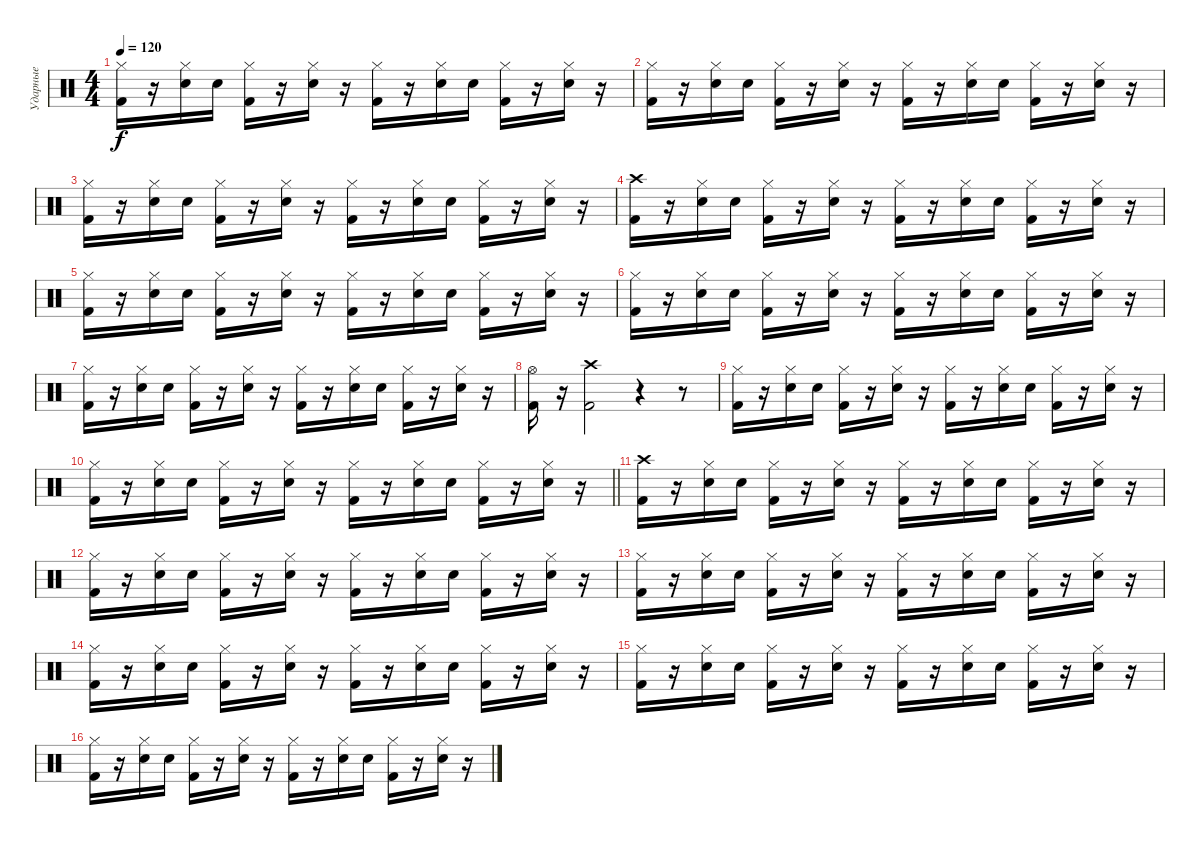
\track ("Ударные" "Ударные") {instrument percussion}
\staff {score}
\articulation defaults
\ts (4 4)
\tempo 120
\clef neutral
\ks c
("Hi-Hat (closed)" "Kick (hit) 2").16{dy f} r.16 ("Hi-Hat (closed)" "Electric Snare (hit)").16 "Electric Snare (hit)".16 ("Hi-Hat (closed)" "Kick (hit) 2").16 r.16 ("Hi-Hat (closed)" "Electric Snare (hit)").16 r.16 ("Hi-Hat (closed)" "Kick (hit) 2").16 r.16 ("Hi-Hat (closed)" "Electric Snare (hit)").16 "Electric Snare (hit)".16 ("Hi-Hat (closed)" "Kick (hit) 2").16 r.16 ("Hi-Hat (closed)" "Electric Snare (hit)").16 r.16 |
("Hi-Hat (closed)" "Kick (hit) 2").16 r.16 ("Hi-Hat (closed)" "Electric Snare (hit)").16 "Electric Snare (hit)".16 ("Hi-Hat (closed)" "Kick (hit) 2").16 r.16 ("Hi-Hat (closed)" "Electric Snare (hit)").16 r.16 ("Hi-Hat (closed)" "Kick (hit) 2").16 r.16 ("Hi-Hat (closed)" "Electric Snare (hit)").16 "Electric Snare (hit)".16 ("Hi-Hat (closed)" "Kick (hit) 2").16 r.16 ("Hi-Hat (closed)" "Electric Snare (hit)").16 r.16 |
("Hi-Hat (closed)" "Kick (hit) 2").16 r.16 ("Hi-Hat (closed)" "Electric Snare (hit)").16 "Electric Snare (hit)".16 ("Hi-Hat (closed)" "Kick (hit) 2").16 r.16 ("Hi-Hat (closed)" "Electric Snare (hit)").16 r.16 ("Hi-Hat (closed)" "Kick (hit) 2").16 r.16 ("Hi-Hat (closed)" "Electric Snare (hit)").16 "Electric Snare (hit)".16 ("Hi-Hat (closed)" "Kick (hit) 2").16 r.16 ("Hi-Hat (closed)" "Electric Snare (hit)").16 r.16 |
("Crash high (hit)" "Kick (hit) 2").16 r.16 ("Hi-Hat (closed)" "Electric Snare (hit)").16 "Electric Snare (hit)".16 ("Hi-Hat (closed)" "Kick (hit) 2").16 r.16 ("Hi-Hat (closed)" "Electric Snare (hit)").16 r.16 ("Hi-Hat (closed)" "Kick (hit) 2").16 r.16 ("Hi-Hat (closed)" "Electric Snare (hit)").16 "Electric Snare (hit)".16 ("Hi-Hat (closed)" "Kick (hit) 2").16 r.16 ("Hi-Hat (closed)" "Electric Snare (hit)").16 r.16 |
("Hi-Hat (closed)" "Kick (hit) 2").16 r.16 ("Hi-Hat (closed)" "Electric Snare (hit)").16 "Electric Snare (hit)".16 ("Hi-Hat (closed)" "Kick (hit) 2").16 r.16 ("Hi-Hat (closed)" "Electric Snare (hit)").16 r.16 ("Hi-Hat (closed)" "Kick (hit) 2").16 r.16 ("Hi-Hat (closed)" "Electric Snare (hit)").16 "Electric Snare (hit)".16 ("Hi-Hat (closed)" "Kick (hit) 2").16 r.16 ("Hi-Hat (closed)" "Electric Snare (hit)").16 r.16 |
("Hi-Hat (closed)" "Kick (hit) 2").16 r.16 ("Hi-Hat (closed)" "Electric Snare (hit)").16 "Electric Snare (hit)".16 ("Hi-Hat (closed)" "Kick (hit) 2").16 r.16 ("Hi-Hat (closed)" "Electric Snare (hit)").16 r.16 ("Hi-Hat (closed)" "Kick (hit) 2").16 r.16 ("Hi-Hat (closed)" "Electric Snare (hit)").16 "Electric Snare (hit)".16 ("Hi-Hat (closed)" "Kick (hit) 2").16 r.16 ("Hi-Hat (closed)" "Electric Snare (hit)").16 r.16 |
("Hi-Hat (closed)" "Kick (hit) 2").16 r.16 ("Hi-Hat (closed)" "Electric Snare (hit)").16 "Electric Snare (hit)".16 ("Hi-Hat (closed)" "Kick (hit) 2").16 r.16 ("Hi-Hat (closed)" "Electric Snare (hit)").16 r.16 ("Hi-Hat (closed)" "Kick (hit) 2").16 r.16 ("Hi-Hat (closed)" "Electric Snare (hit)").16 "Electric Snare (hit)".16 ("Hi-Hat (closed)" "Kick (hit) 2").16 r.16 ("Hi-Hat (closed)" "Electric Snare (hit)").16 r.16 |
("Hi-Hat (open)" "Kick (hit) 2").16 r.16 ("Crash high (hit)" "Kick (hit) 2").2 r.4 r.8 |
("Hi-Hat (closed)" "Kick (hit) 2").16 r.16 ("Hi-Hat (closed)" "Electric Snare (hit)").16 "Electric Snare (hit)".16 ("Hi-Hat (closed)" "Kick (hit) 2").16 r.16 ("Hi-Hat (closed)" "Electric Snare (hit)").16 r.16 ("Hi-Hat (closed)" "Kick (hit) 2").16 r.16 ("Hi-Hat (closed)" "Electric Snare (hit)").16 "Electric Snare (hit)".16 ("Hi-Hat (closed)" "Kick (hit) 2").16 r.16 ("Hi-Hat (closed)" "Electric Snare (hit)").16 r.16 |
\barLineRight lightlight
("Hi-Hat (closed)" "Kick (hit) 2").16 r.16 ("Hi-Hat (closed)" "Electric Snare (hit)").16 "Electric Snare (hit)".16 ("Hi-Hat (closed)" "Kick (hit) 2").16 r.16 ("Hi-Hat (closed)" "Electric Snare (hit)").16 r.16 ("Hi-Hat (closed)" "Kick (hit) 2").16 r.16 ("Hi-Hat (closed)" "Electric Snare (hit)").16 "Electric Snare (hit)".16 ("Hi-Hat (closed)" "Kick (hit) 2").16 r.16 ("Hi-Hat (closed)" "Electric Snare (hit)").16 r.16 |
("Crash high (hit)" "Kick (hit) 2").16 r.16 ("Hi-Hat (closed)" "Electric Snare (hit)").16 "Electric Snare (hit)".16 ("Hi-Hat (closed)" "Kick (hit) 2").16 r.16 ("Hi-Hat (closed)" "Electric Snare (hit)").16 r.16 ("Hi-Hat (closed)" "Kick (hit) 2").16 r.16 ("Hi-Hat (closed)" "Electric Snare (hit)").16 "Electric Snare (hit)".16 ("Hi-Hat (closed)" "Kick (hit) 2").16 r.16 ("Hi-Hat (closed)" "Electric Snare (hit)").16 r.16 |
("Hi-Hat (closed)" "Kick (hit) 2").16 r.16 ("Hi-Hat (closed)" "Electric Snare (hit)").16 "Electric Snare (hit)".16 ("Hi-Hat (closed)" "Kick (hit) 2").16 r.16 ("Hi-Hat (closed)" "Electric Snare (hit)").16 r.16 ("Hi-Hat (closed)" "Kick (hit) 2").16 r.16 ("Hi-Hat (closed)" "Electric Snare (hit)").16 "Electric Snare (hit)".16 ("Hi-Hat (closed)" "Kick (hit) 2").16 r.16 ("Hi-Hat (closed)" "Electric Snare (hit)").16 r.16 |
("Hi-Hat (closed)" "Kick (hit) 2").16 r.16 ("Hi-Hat (closed)" "Electric Snare (hit)").16 "Electric Snare (hit)".16 ("Hi-Hat (closed)" "Kick (hit) 2").16 r.16 ("Hi-Hat (closed)" "Electric Snare (hit)").16 r.16 ("Hi-Hat (closed)" "Kick (hit) 2").16 r.16 ("Hi-Hat (closed)" "Electric Snare (hit)").16 "Electric Snare (hit)".16 ("Hi-Hat (closed)" "Kick (hit) 2").16 r.16 ("Hi-Hat (closed)" "Electric Snare (hit)").16 r.16 |
("Hi-Hat (closed)" "Kick (hit) 2").16 r.16 ("Hi-Hat (closed)" "Electric Snare (hit)").16 "Electric Snare (hit)".16 ("Hi-Hat (closed)" "Kick (hit) 2").16 r.16 ("Hi-Hat (closed)" "Electric Snare (hit)").16 r.16 ("Hi-Hat (closed)" "Kick (hit) 2").16 r.16 ("Hi-Hat (closed)" "Electric Snare (hit)").16 "Electric Snare (hit)".16 ("Hi-Hat (closed)" "Kick (hit) 2").16 r.16 ("Hi-Hat (closed)" "Electric Snare (hit)").16 r.16 |
("Hi-Hat (closed)" "Kick (hit) 2").16 r.16 ("Hi-Hat (closed)" "Electric Snare (hit)").16 "Electric Snare (hit)".16 ("Hi-Hat (closed)" "Kick (hit) 2").16 r.16 ("Hi-Hat (closed)" "Electric Snare (hit)").16 r.16 ("Hi-Hat (closed)" "Kick (hit) 2").16 r.16 ("Hi-Hat (closed)" "Electric Snare (hit)").16 "Electric Snare (hit)".16 ("Hi-Hat (closed)" "Kick (hit) 2").16 r.16 ("Hi-Hat (closed)" "Electric Snare (hit)").16 r.16 |
("Hi-Hat (closed)" "Kick (hit) 2").16 r.16 ("Hi-Hat (closed)" "Electric Snare (hit)").16 "Electric Snare (hit)".16 ("Hi-Hat (closed)" "Kick (hit) 2").16 r.16 ("Hi-Hat (closed)" "Electric Snare (hit)").16 r.16 ("Hi-Hat (closed)" "Kick (hit) 2").16 r.16 ("Hi-Hat (closed)" "Electric Snare (hit)").16 "Electric Snare (hit)".16 ("Hi-Hat (closed)" "Kick (hit) 2").16 r.16 ("Hi-Hat (closed)" "Electric Snare (hit)").16 r.16
